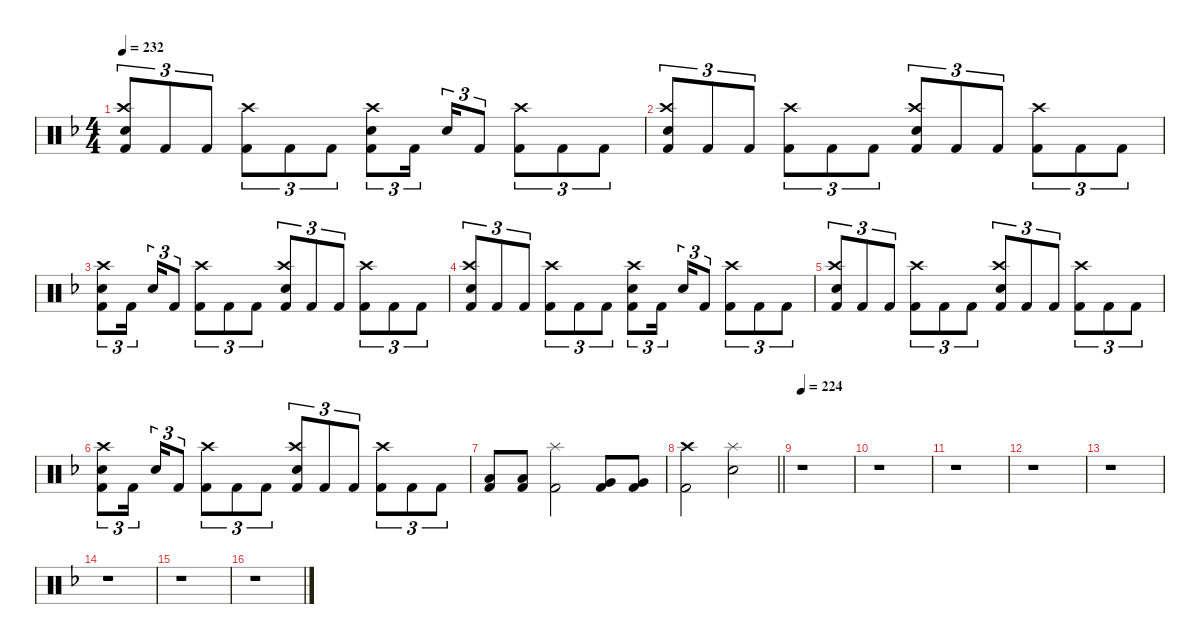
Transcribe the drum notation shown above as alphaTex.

\hideDynamics
\bracketExtendMode nobrackets
\singleTrackTrackNamePolicy hidden
\multiTrackTrackNamePolicy hidden
\firstSystemTrackNameMode fullname
\firstSystemTrackNameOrientation horizontal
\otherSystemsTrackNameOrientation horizontal
\track ("Drumkit" "Drums") {defaultSystemsLayout 4 instrument percussion}
\staff {score}
\articulation defaults
\ts (4 4)
\tempo 232
\clef neutral
\ks dminor
("Crash high (hit)"{acc forcenatural} "Snare (hit) 2"{acc forcenatural} "Kick (hit) 2"{acc forcenatural}).8{tu (3 2) dy f beam Up} "Kick (hit) 2"{acc forcenatural}.8{tu (3 2) beam Up} "Kick (hit) 2"{acc forcenatural}.8{tu (3 2) beam Up} ("Crash high (hit)"{acc forcenatural} "Kick (hit) 2"{acc forcenatural}).8{tu (3 2) dy mp beam Down} "Kick (hit) 2"{acc forcenatural}.8{tu (3 2) dy f beam Down} "Kick (hit) 2"{acc forcenatural}.8{tu (3 2) beam Down} ("Crash high (hit)"{acc forcenatural} "Snare (hit) 2"{acc forcenatural} "Kick (hit) 2"{acc forcenatural}).8{tu (3 2) beam Down} "Kick (hit) 2"{acc forcenatural}.16{tu (3 2) beam Down} "Snare (hit) 2"{acc forcenatural}.16{tu (3 2) dy mf beam Up} "Kick (hit) 2"{acc forcenatural}.8{tu (3 2) dy f beam Up} ("Crash high (hit)"{acc forcenatural} "Kick (hit) 2"{acc forcenatural}).8{tu (3 2) dy mp beam Down} "Kick (hit) 2"{acc forcenatural}.8{tu (3 2) dy f beam Down} "Kick (hit) 2"{acc forcenatural}.8{tu (3 2) beam Down} |
("Crash high (hit)"{acc forcenatural} "Snare (hit) 2"{acc forcenatural} "Kick (hit) 2"{acc forcenatural}).8{tu (3 2) beam Up} "Kick (hit) 2"{acc forcenatural}.8{tu (3 2) beam Up} "Kick (hit) 2"{acc forcenatural}.8{tu (3 2) beam Up} ("Crash high (hit)"{acc forcenatural} "Kick (hit) 2"{acc forcenatural}).8{tu (3 2) dy mp beam Down} "Kick (hit) 2"{acc forcenatural}.8{tu (3 2) dy f beam Down} "Kick (hit) 2"{acc forcenatural}.8{tu (3 2) beam Down} ("Crash high (hit)"{acc forcenatural} "Snare (hit) 2"{acc forcenatural} "Kick (hit) 2"{acc forcenatural}).8{tu (3 2) beam Up} "Kick (hit) 2"{acc forcenatural}.8{tu (3 2) beam Up} "Kick (hit) 2"{acc forcenatural}.8{tu (3 2) beam Up} ("Crash high (hit)"{acc forcenatural} "Kick (hit) 2"{acc forcenatural}).8{tu (3 2) dy mp beam Down} "Kick (hit) 2"{acc forcenatural}.8{tu (3 2) dy f beam Down} "Kick (hit) 2"{acc forcenatural}.8{tu (3 2) beam Down} |
("Crash high (hit)"{acc forcenatural} "Snare (hit) 2"{acc forcenatural} "Kick (hit) 2"{acc forcenatural}).8{tu (3 2) beam Down} "Kick (hit) 2"{acc forcenatural}.16{tu (3 2) beam Down} "Snare (hit) 2"{acc forcenatural}.16{tu (3 2) dy mf beam Up} "Kick (hit) 2"{acc forcenatural}.8{tu (3 2) dy f beam Up} ("Crash high (hit)"{acc forcenatural} "Kick (hit) 2"{acc forcenatural}).8{tu (3 2) dy mp beam Down} "Kick (hit) 2"{acc forcenatural}.8{tu (3 2) dy f beam Down} "Kick (hit) 2"{acc forcenatural}.8{tu (3 2) beam Down} ("Crash high (hit)"{acc forcenatural} "Snare (hit) 2"{acc forcenatural} "Kick (hit) 2"{acc forcenatural}).8{tu (3 2) beam Up} "Kick (hit) 2"{acc forcenatural}.8{tu (3 2) beam Up} "Kick (hit) 2"{acc forcenatural}.8{tu (3 2) beam Up} ("Crash high (hit)"{acc forcenatural} "Kick (hit) 2"{acc forcenatural}).8{tu (3 2) dy mp beam Down} "Kick (hit) 2"{acc forcenatural}.8{tu (3 2) dy f beam Down} "Kick (hit) 2"{acc forcenatural}.8{tu (3 2) beam Down} |
("Crash high (hit)"{acc forcenatural} "Snare (hit) 2"{acc forcenatural} "Kick (hit) 2"{acc forcenatural}).8{tu (3 2) beam Up} "Kick (hit) 2"{acc forcenatural}.8{tu (3 2) beam Up} "Kick (hit) 2"{acc forcenatural}.8{tu (3 2) beam Up} ("Crash high (hit)"{acc forcenatural} "Kick (hit) 2"{acc forcenatural}).8{tu (3 2) dy mp beam Down} "Kick (hit) 2"{acc forcenatural}.8{tu (3 2) dy f beam Down} "Kick (hit) 2"{acc forcenatural}.8{tu (3 2) beam Down} ("Crash high (hit)"{acc forcenatural} "Snare (hit) 2"{acc forcenatural} "Kick (hit) 2"{acc forcenatural}).8{tu (3 2) beam Down} "Kick (hit) 2"{acc forcenatural}.16{tu (3 2) beam Down} "Snare (hit) 2"{acc forcenatural}.16{tu (3 2) dy mf beam Up} "Kick (hit) 2"{acc forcenatural}.8{tu (3 2) dy f beam Up} ("Crash high (hit)"{acc forcenatural} "Kick (hit) 2"{acc forcenatural}).8{tu (3 2) dy mp beam Down} "Kick (hit) 2"{acc forcenatural}.8{tu (3 2) dy f beam Down} "Kick (hit) 2"{acc forcenatural}.8{tu (3 2) beam Down} |
("Crash high (hit)"{acc forcenatural} "Snare (hit) 2"{acc forcenatural} "Kick (hit) 2"{acc forcenatural}).8{tu (3 2) beam Up} "Kick (hit) 2"{acc forcenatural}.8{tu (3 2) beam Up} "Kick (hit) 2"{acc forcenatural}.8{tu (3 2) beam Up} ("Crash high (hit)"{acc forcenatural} "Kick (hit) 2"{acc forcenatural}).8{tu (3 2) dy mp beam Down} "Kick (hit) 2"{acc forcenatural}.8{tu (3 2) dy f beam Down} "Kick (hit) 2"{acc forcenatural}.8{tu (3 2) beam Down} ("Crash high (hit)"{acc forcenatural} "Snare (hit) 2"{acc forcenatural} "Kick (hit) 2"{acc forcenatural}).8{tu (3 2) beam Up} "Kick (hit) 2"{acc forcenatural}.8{tu (3 2) beam Up} "Kick (hit) 2"{acc forcenatural}.8{tu (3 2) beam Up} ("Crash high (hit)"{acc forcenatural} "Kick (hit) 2"{acc forcenatural}).8{tu (3 2) dy mp beam Down} "Kick (hit) 2"{acc forcenatural}.8{tu (3 2) dy f beam Down} "Kick (hit) 2"{acc forcenatural}.8{tu (3 2) beam Down} |
("Crash high (hit)"{acc forcenatural} "Snare (hit) 2"{acc forcenatural} "Kick (hit) 2"{acc forcenatural}).8{tu (3 2) beam Down} "Kick (hit) 2"{acc forcenatural}.16{tu (3 2) beam Down} "Snare (hit) 2"{acc forcenatural}.16{tu (3 2) dy mf beam Up} "Kick (hit) 2"{acc forcenatural}.8{tu (3 2) dy f beam Up} ("Crash high (hit)"{acc forcenatural} "Kick (hit) 2"{acc forcenatural}).8{tu (3 2) dy mp beam Down} "Kick (hit) 2"{acc forcenatural}.8{tu (3 2) dy f beam Down} "Kick (hit) 2"{acc forcenatural}.8{tu (3 2) beam Down} ("Crash high (hit)"{acc forcenatural} "Snare (hit) 2"{acc forcenatural} "Kick (hit) 2"{acc forcenatural}).8{tu (3 2) beam Up} "Kick (hit) 2"{acc forcenatural}.8{tu (3 2) beam Up} "Kick (hit) 2"{acc forcenatural}.8{tu (3 2) beam Up} ("Crash high (hit)"{acc forcenatural} "Kick (hit) 2"{acc forcenatural}).8{tu (3 2) dy mp beam Down} "Kick (hit) 2"{acc forcenatural}.8{tu (3 2) dy f beam Down} "Kick (hit) 2"{acc forcenatural}.8{tu (3 2) beam Down} |
("Low Tom (hit)"{acc forcenatural} "Kick (hit) 2"{acc forcenatural}).8{beam Up} ("Low Tom (hit)"{acc forcenatural} "Kick (hit) 2"{acc forcenatural}).8{beam Up} ("Splash (hit)"{acc forcenatural} "Kick (hit) 2"{acc forcenatural}).2{beam Down} ("Very Low Tom (hit)"{acc forcenatural} "Kick (hit) 2"{acc forcenatural}).8{beam Up} ("Very Low Tom (hit)"{acc forcenatural} "Kick (hit) 2"{acc forcenatural}).8{beam Up} |
\barLineRight lightlight
("Crash high (hit)"{acc forcenatural} "Kick (hit) 2"{acc forcenatural}).2{beam Down} ("Splash (hit)"{acc forcenatural} "Snare (hit) 2"{acc forcenatural}).2{dy mf beam Down} |
\tempo 224
r.1{beam Down} |
r.1{beam Down} |
r.1{beam Down} |
r.1{beam Down} |
r.1{beam Down} |
r.1{beam Down} |
r.1{beam Down} |
r.1{beam Down}
